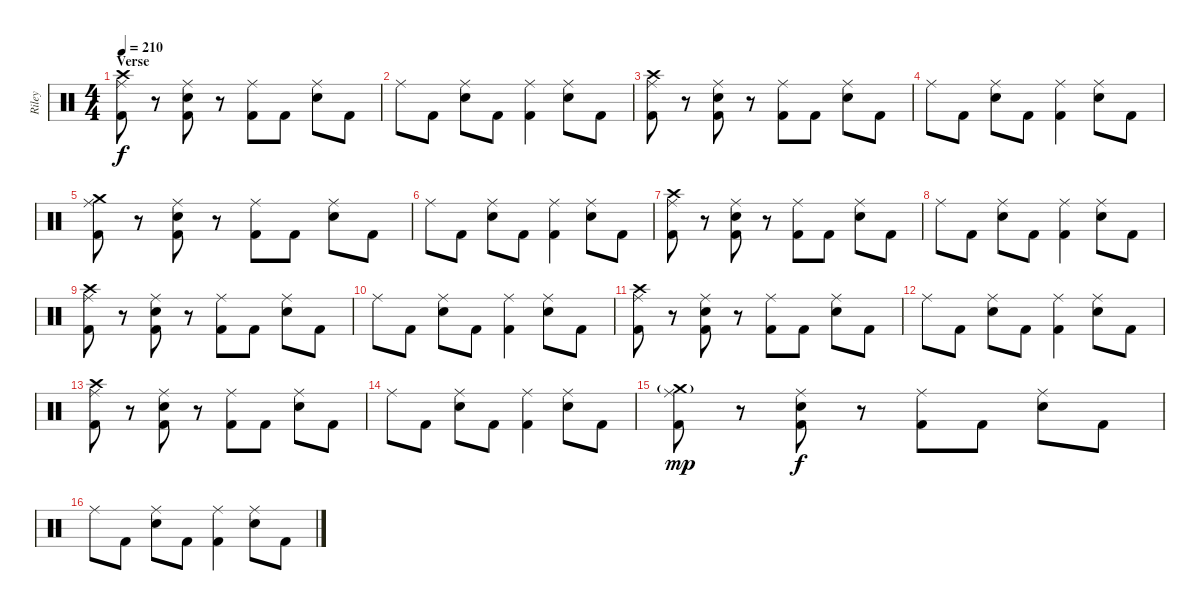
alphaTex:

\track ("Riley" "Riley") {instrument percussion}
\staff {score}
\articulation defaults
\ts (4 4)
\section ("" "Verse")
\tempo 210
\clef neutral
\ks c
("Crash high (hit)" "Ride (middle)" "Kick (hit) 2").8{dy f} r.8 ("Ride (middle)" "Electric Snare (hit)" "Kick (hit) 2").8 r.8 ("Ride (middle)" "Kick (hit) 2").8 "Kick (hit) 2".8 ("Ride (middle)" "Electric Snare (hit)").8 "Kick (hit) 2".8 |
"Ride (middle)".8 "Kick (hit) 2".8 ("Ride (middle)" "Electric Snare (hit)").8 "Kick (hit) 2".8 ("Ride (middle)" "Kick (hit) 2").4 ("Ride (middle)" "Electric Snare (hit)").8 "Kick (hit) 2".8 |
("Crash high (hit)" "Ride (middle)" "Kick (hit) 2").8 r.8 ("Ride (middle)" "Electric Snare (hit)" "Kick (hit) 2").8 r.8 ("Ride (middle)" "Kick (hit) 2").8 "Kick (hit) 2".8 ("Ride (middle)" "Electric Snare (hit)").8 "Kick (hit) 2".8 |
"Ride (middle)".8 "Kick (hit) 2".8 ("Ride (middle)" "Electric Snare (hit)").8 "Kick (hit) 2".8 ("Ride (middle)" "Kick (hit) 2").4 ("Ride (middle)" "Electric Snare (hit)").8 "Kick (hit) 2".8 |
("Crash medium (hit)" "Ride (middle)" "Kick (hit) 2").8 r.8 ("Ride (middle)" "Electric Snare (hit)" "Kick (hit) 2").8 r.8 ("Ride (middle)" "Kick (hit) 2").8 "Kick (hit) 2".8 ("Ride (middle)" "Electric Snare (hit)").8 "Kick (hit) 2".8 |
"Ride (middle)".8 "Kick (hit) 2".8 ("Ride (middle)" "Electric Snare (hit)").8 "Kick (hit) 2".8 ("Ride (middle)" "Kick (hit) 2").4 ("Ride (middle)" "Electric Snare (hit)").8 "Kick (hit) 2".8 |
("Crash high (hit)" "Ride (middle)" "Kick (hit) 2").8 r.8 ("Ride (middle)" "Electric Snare (hit)" "Kick (hit) 2").8 r.8 ("Ride (middle)" "Kick (hit) 2").8 "Kick (hit) 2".8 ("Ride (middle)" "Electric Snare (hit)").8 "Kick (hit) 2".8 |
"Ride (middle)".8 "Kick (hit) 2".8 ("Ride (middle)" "Electric Snare (hit)").8 "Kick (hit) 2".8 ("Ride (middle)" "Kick (hit) 2").4 ("Ride (middle)" "Electric Snare (hit)").8 "Kick (hit) 2".8 |
("Crash high (hit)" "Ride (middle)" "Kick (hit) 2").8 r.8 ("Ride (middle)" "Electric Snare (hit)" "Kick (hit) 2").8 r.8 ("Ride (middle)" "Kick (hit) 2").8 "Kick (hit) 2".8 ("Ride (middle)" "Electric Snare (hit)").8 "Kick (hit) 2".8 |
"Ride (middle)".8 "Kick (hit) 2".8 ("Ride (middle)" "Electric Snare (hit)").8 "Kick (hit) 2".8 ("Ride (middle)" "Kick (hit) 2").4 ("Ride (middle)" "Electric Snare (hit)").8 "Kick (hit) 2".8 |
("Crash high (hit)" "Ride (middle)" "Kick (hit) 2").8 r.8 ("Ride (middle)" "Electric Snare (hit)" "Kick (hit) 2").8 r.8 ("Ride (middle)" "Kick (hit) 2").8 "Kick (hit) 2".8 ("Ride (middle)" "Electric Snare (hit)").8 "Kick (hit) 2".8 |
"Ride (middle)".8 "Kick (hit) 2".8 ("Ride (middle)" "Electric Snare (hit)").8 "Kick (hit) 2".8 ("Ride (middle)" "Kick (hit) 2").4 ("Ride (middle)" "Electric Snare (hit)").8 "Kick (hit) 2".8 |
("Crash high (hit)" "Ride (middle)" "Kick (hit) 2").8 r.8 ("Ride (middle)" "Electric Snare (hit)" "Kick (hit) 2").8 r.8 ("Ride (middle)" "Kick (hit) 2").8 "Kick (hit) 2".8 ("Ride (middle)" "Electric Snare (hit)").8 "Kick (hit) 2".8 |
"Ride (middle)".8 "Kick (hit) 2".8 ("Ride (middle)" "Electric Snare (hit)").8 "Kick (hit) 2".8 ("Ride (middle)" "Kick (hit) 2").4 ("Ride (middle)" "Electric Snare (hit)").8 "Kick (hit) 2".8 |
("Crash medium (hit)"{g} "Ride (middle)" "Kick (hit) 2").8{dy mp} r.8 ("Ride (middle)" "Electric Snare (hit)" "Kick (hit) 2").8{dy f} r.8 ("Ride (middle)" "Kick (hit) 2").8 "Kick (hit) 2".8 ("Ride (middle)" "Electric Snare (hit)").8 "Kick (hit) 2".8 |
"Ride (middle)".8 "Kick (hit) 2".8 ("Ride (middle)" "Electric Snare (hit)").8 "Kick (hit) 2".8 ("Ride (middle)" "Kick (hit) 2").4 ("Ride (middle)" "Electric Snare (hit)").8 "Kick (hit) 2".8
